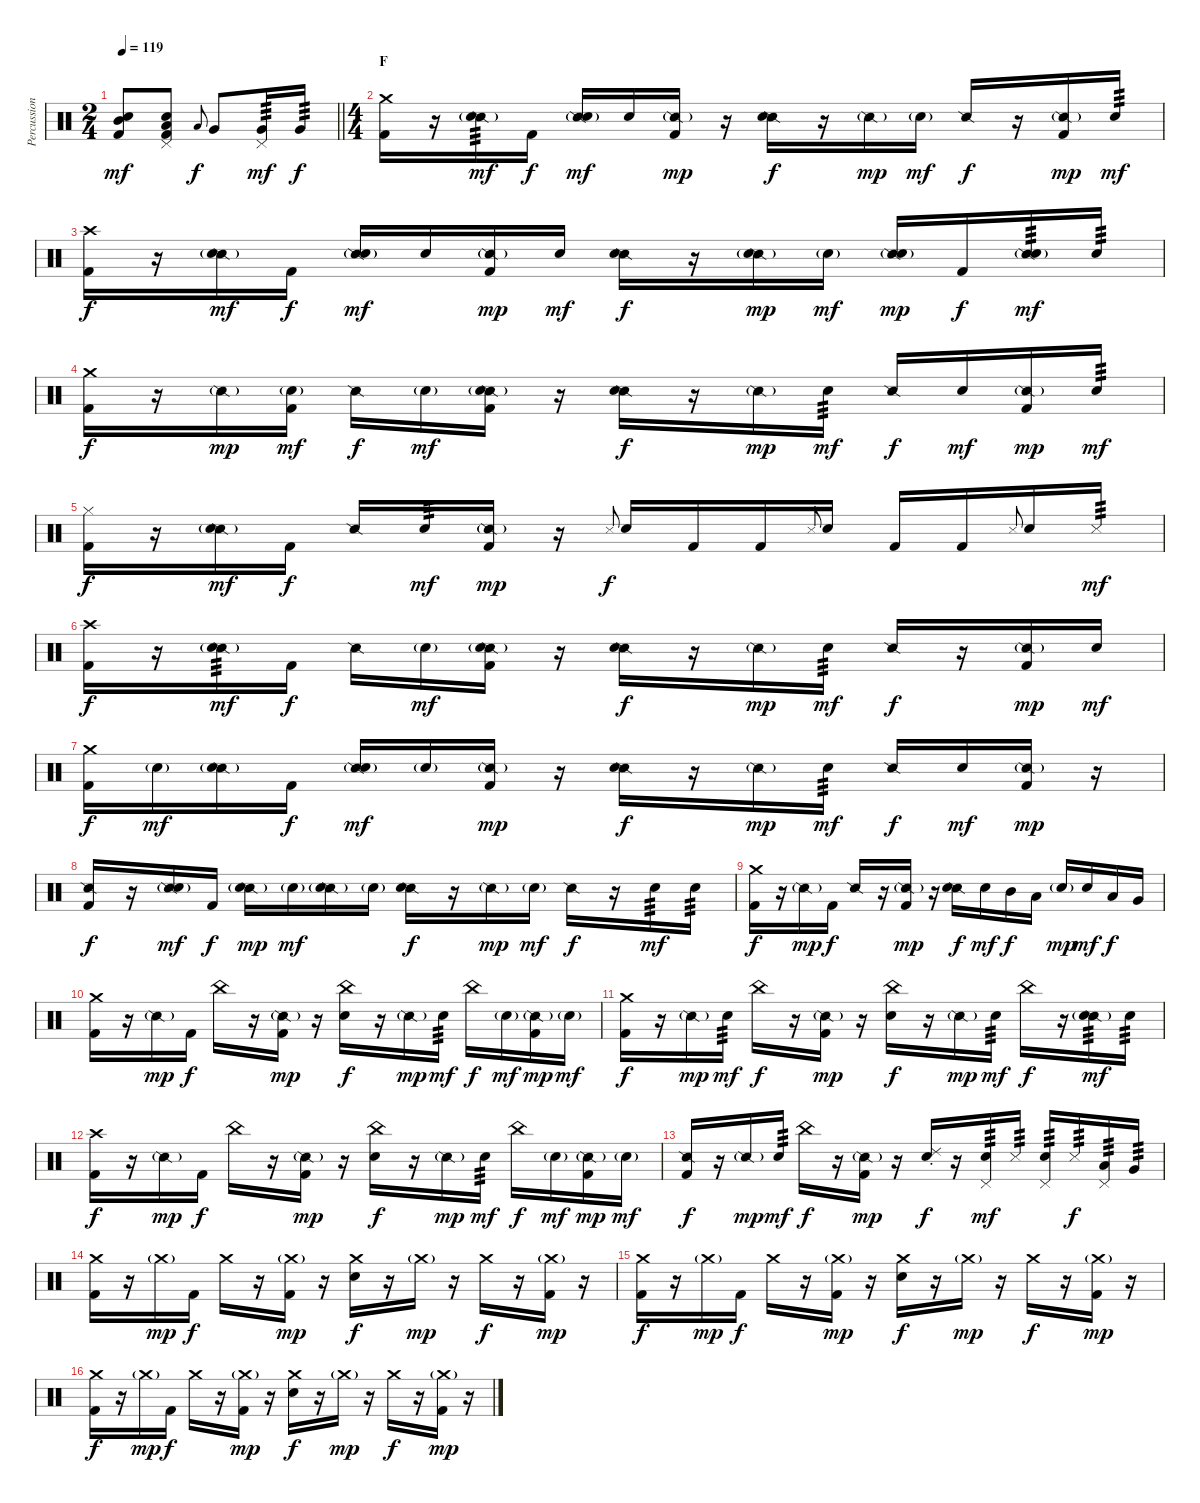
\track ("Percussion" "Percussion") {instrument percussion}
\staff {score}
\articulation defaults
\ts (2 4)
\tempo 119
\clef neutral
\barLineRight lightlight
\ks c
("Mid Tom (hit)" "Snare (hit) 2" "Kick (hit) 2").8{dy mf} ("Pedal Hi-Hat (hit)" "Snare (hit) 2" "Low Floor Tom (hit)" "Kick (hit) 2").8 "Low Tom (hit)".8{gr onbeat dy f} "Very Low Tom (hit)".8 ("Pedal Hi-Hat (hit)" "Very Low Tom (hit)").16{tp 3 dy mf} "Very Low Tom (hit)".16{tp 3 dy f} |
\ts (4 4)
\section ("" "F")
("Crash medium (hit)" "Kick (hit) 2").16 r.16 ("Snare (side stick) 2"{g} "Snare (hit) 2").16{tp 3 dy mf} "Kick (hit) 2".16{dy f} ("Snare (side stick) 2" "Snare (hit) 2"{g}).16{dy mf} "Snare (hit) 2".16 ("Snare (side stick) 2"{g} "Kick (hit) 2").16{dy mp} r.16 ("Snare (side stick) 2" "Snare (hit) 2").16{dy f} r.16 "Snare (side stick) 2"{g}.16{dy mp} "Snare (hit) 2"{g}.16{dy mf} "Snare (side stick) 2".16{dy f} r.16 ("Snare (side stick) 2"{g} "Kick (hit) 2").16{dy mp} "Snare (hit) 2".16{tp 3 dy mf} |
("Crash high (hit)" "Kick (hit) 2").16{dy f} r.16 ("Snare (side stick) 2"{g} "Snare (hit) 2"{g}).16{dy mf} "Kick (hit) 2".16{dy f} ("Snare (side stick) 2" "Snare (hit) 2"{g}).16{dy mf} "Snare (hit) 2".16 ("Snare (side stick) 2"{g} "Kick (hit) 2").16{dy mp} "Snare (hit) 2".16{dy mf} ("Snare (side stick) 2" "Snare (hit) 2").16{dy f} r.16 ("Snare (side stick) 2"{g} "Snare (hit) 2"{g}).16{dy mp} "Snare (hit) 2"{g}.16{dy mf} ("Snare (side stick) 2" "Snare (hit) 2"{g}).16{dy mp} "Kick (hit) 2".16{dy f} ("Snare (side stick) 2"{g} "Snare (hit) 2").16{tp 3 dy mf} "Snare (hit) 2".16{tp 3} |
("Crash medium (hit)" "Kick (hit) 2").16{dy f} r.16 "Snare (side stick) 2"{g}.16{dy mp} ("Snare (hit) 2"{g} "Kick (hit) 2").16{dy mf} "Snare (side stick) 2".16{dy f} "Snare (hit) 2"{g}.16{dy mf} ("Snare (side stick) 2"{g} "Snare (hit) 2"{g} "Kick (hit) 2").16 r.16 ("Snare (side stick) 2" "Snare (hit) 2").16{dy f} r.16 "Snare (side stick) 2"{g}.16{dy mp} "Snare (hit) 2".16{tp 3 dy mf} "Snare (side stick) 2".16{dy f} "Snare (hit) 2".16{dy mf} ("Snare (side stick) 2"{g} "Kick (hit) 2").16{dy mp} "Snare (hit) 2".16{tp 3 dy mf} |
("Hi-Hat (closed)" "Kick (hit) 2").16{dy f} r.16 ("Snare (side stick) 2"{g} "Snare (hit) 2").16{dy mf} "Kick (hit) 2".16{dy f} "Snare (side stick) 2".16 "Snare (hit) 2".16{tp 3 dy mf} ("Snare (side stick) 2"{g} "Kick (hit) 2").16{dy mp} r.16 "Metronome (hit)".8{gr onbeat dy f} "Snare (hit) 2".16 "Kick (hit) 2".16 "Kick (hit) 2".16 "Metronome (hit)".8{gr onbeat} "Snare (hit) 2".16 "Kick (hit) 2".16 "Kick (hit) 2".16 "Metronome (hit)".8{gr onbeat} "Snare (hit) 2".16 "Metronome (hit)".16{tp 3 dy mf} |
("Crash high (hit)" "Kick (hit) 2").16{dy f} r.16 ("Snare (side stick) 2"{g} "Snare (hit) 2").16{tp 3 dy mf} "Kick (hit) 2".16{dy f} "Snare (side stick) 2".16 "Snare (hit) 2"{g}.16{dy mf} ("Snare (side stick) 2"{g} "Snare (hit) 2"{g} "Kick (hit) 2").16 r.16 ("Snare (side stick) 2" "Snare (hit) 2").16{dy f} r.16 "Snare (side stick) 2"{g}.16{dy mp} "Snare (hit) 2".16{tp 3 dy mf} "Snare (side stick) 2".16{dy f} r.16 ("Snare (side stick) 2"{g} "Kick (hit) 2").16{dy mp} "Snare (hit) 2".16{dy mf} |
("Crash medium (hit)" "Kick (hit) 2").16{dy f} "Snare (hit) 2"{g}.16{dy mf} ("Snare (side stick) 2"{g} "Snare (hit) 2"{g}).16 "Kick (hit) 2".16{dy f} ("Snare (side stick) 2" "Snare (hit) 2"{g}).16{dy mf} "Snare (hit) 2"{g}.16 ("Snare (side stick) 2"{g} "Kick (hit) 2").16{dy mp} r.16 ("Snare (side stick) 2" "Snare (hit) 2").16{dy f} r.16 "Snare (side stick) 2"{g}.16{dy mp} "Snare (hit) 2".16{tp 3 dy mf} "Snare (side stick) 2".16{dy f} "Snare (hit) 2".16{dy mf} ("Snare (side stick) 2"{g} "Kick (hit) 2").16{dy mp} r.16 |
("Snare (side stick) 2" "Kick (hit) 2").16{dy f} r.16 ("Snare (side stick) 2"{g} "Snare (hit) 2"{g}).16{dy mf} "Kick (hit) 2".16{dy f} ("Snare (side stick) 2" "Snare (hit) 2"{g}).16{dy mp} "Snare (hit) 2"{g}.16{dy mf} ("Snare (side stick) 2"{g} "Snare (hit) 2").16 "Snare (hit) 2"{g}.16 ("Snare (side stick) 2" "Snare (hit) 2").16{dy f} r.16 "Snare (side stick) 2"{g}.16{dy mp} "Snare (hit) 2"{g}.16{dy mf} "Snare (side stick) 2".16{dy f} r.16 "Snare (hit) 2".16{tp 3 dy mf} "Snare (hit) 2".16{tp 3} |
("Crash medium (hit)" "Kick (hit) 2").16{dy f} r.16 "Snare (side stick) 2"{g}.16{dy mp} "Kick (hit) 2".16{dy f} "Snare (side stick) 2".16 r.16 ("Snare (side stick) 2"{g} "Kick (hit) 2").16{dy mp} r.16 ("Snare (side stick) 2" "Snare (hit) 2").16{dy f} "Snare (hit) 2".16{dy mf} "Mid Tom (hit)".16{dy f} "Low Tom (hit)".16 "Snare (hit) 2"{g}.16{dy mp} "Snare (hit) 2".16{dy mf} "Low Tom (hit)".16{dy f} "Very Low Tom (hit)".16 |
("Crash medium (hit)" "Kick (hit) 2").16 r.16 "Snare (side stick) 2"{g}.16{dy mp} "Kick (hit) 2".16{dy f} "China (hit)".16 r.16 ("Snare (side stick) 2"{g} "Kick (hit) 2").16{dy mp} r.16 ("China (hit)" "Snare (hit) 2").16{dy f} r.16 "Snare (side stick) 2"{g}.16{dy mp} "Snare (hit) 2".16{tp 3 dy mf} "China (hit)".16{dy f} "Snare (hit) 2"{g}.16{dy mf} ("Snare (side stick) 2"{g} "Kick (hit) 2").16{dy mp} "Snare (hit) 2"{g}.16{dy mf} |
("Crash medium (hit)" "Kick (hit) 2").16{dy f} r.16 "Snare (side stick) 2"{g}.16{dy mp} "Snare (hit) 2".16{tp 3 dy mf} "China (hit)".16{dy f} r.16 ("Snare (side stick) 2"{g} "Kick (hit) 2").16{dy mp} r.16 ("China (hit)" "Snare (hit) 2").16{dy f} r.16 "Snare (side stick) 2"{g}.16{dy mp} "Snare (hit) 2".16{tp 3 dy mf} "China (hit)".16{dy f} r.16 ("Snare (side stick) 2"{g} "Snare (hit) 2").16{tp 3 dy mf} "Snare (hit) 2".16{tp 3} |
("Crash high (hit)" "Kick (hit) 2").16{dy f} r.16 "Snare (side stick) 2"{g}.16{dy mp} "Kick (hit) 2".16{dy f} "China (hit)".16 r.16 ("Snare (side stick) 2"{g} "Kick (hit) 2").16{dy mp} r.16 ("China (hit)" "Snare (hit) 2").16{dy f} r.16 "Snare (side stick) 2"{g}.16{dy mp} "Snare (hit) 2".16{tp 3 dy mf} "China (hit)".16{dy f} "Snare (hit) 2"{g}.16{dy mf} ("Snare (side stick) 2"{g} "Kick (hit) 2").16{dy mp} "Snare (hit) 2"{g}.16{dy mf} |
("Snare (side stick) 2" "Kick (hit) 2").16{dy f} r.16 "Snare (side stick) 2"{g}.16{dy mp} "Snare (hit) 2".16{tp 3 dy mf} "China (hit)".16{dy f} r.16 ("Snare (side stick) 2"{g} "Kick (hit) 2").16{dy mp} r.16 ("Ride (choke) 2" "Snare (hit) 2").16{dy f} r.16 ("Pedal Hi-Hat (hit)" "Snare (hit) 2").16{tp 3 dy mf} "Metronome (hit)".16{tp 3} ("Pedal Hi-Hat (hit)" "Snare (hit) 2").16{tp 3} "Metronome (hit)".16{tp 3 dy f} ("Pedal Hi-Hat (hit)" "Low Tom (hit)").16{tp 3} "Very Low Tom (hit)".16{tp 3} |
("Crash medium (hit)" "Kick (hit) 2").16 r.16 "Crash medium (hit)"{g}.16{dy mp} "Kick (hit) 2".16{dy f} "Crash medium (hit)".16 r.16 ("Crash medium (hit)"{g} "Kick (hit) 2").16{dy mp} r.16 ("Crash medium (hit)" "Snare (hit) 2").16{dy f} r.16 "Crash medium (hit)"{g}.16{dy mp} r.16 "Crash medium (hit)".16{dy f} r.16 ("Crash medium (hit)"{g} "Kick (hit) 2").16{dy mp} r.16 |
("Crash medium (hit)" "Kick (hit) 2").16{dy f} r.16 "Crash medium (hit)"{g}.16{dy mp} "Kick (hit) 2".16{dy f} "Crash medium (hit)".16 r.16 ("Crash medium (hit)"{g} "Kick (hit) 2").16{dy mp} r.16 ("Crash medium (hit)" "Snare (hit) 2").16{dy f} r.16 "Crash medium (hit)"{g}.16{dy mp} r.16 "Crash medium (hit)".16{dy f} r.16 ("Crash medium (hit)"{g} "Kick (hit) 2").16{dy mp} r.16 |
("Crash medium (hit)" "Kick (hit) 2").16{dy f} r.16 "Crash medium (hit)"{g}.16{dy mp} "Kick (hit) 2".16{dy f} "Crash medium (hit)".16 r.16 ("Crash medium (hit)"{g} "Kick (hit) 2").16{dy mp} r.16 ("Crash medium (hit)" "Snare (hit) 2").16{dy f} r.16 "Crash medium (hit)"{g}.16{dy mp} r.16 "Crash medium (hit)".16{dy f} r.16 ("Crash medium (hit)"{g} "Kick (hit) 2").16{dy mp} r.16
